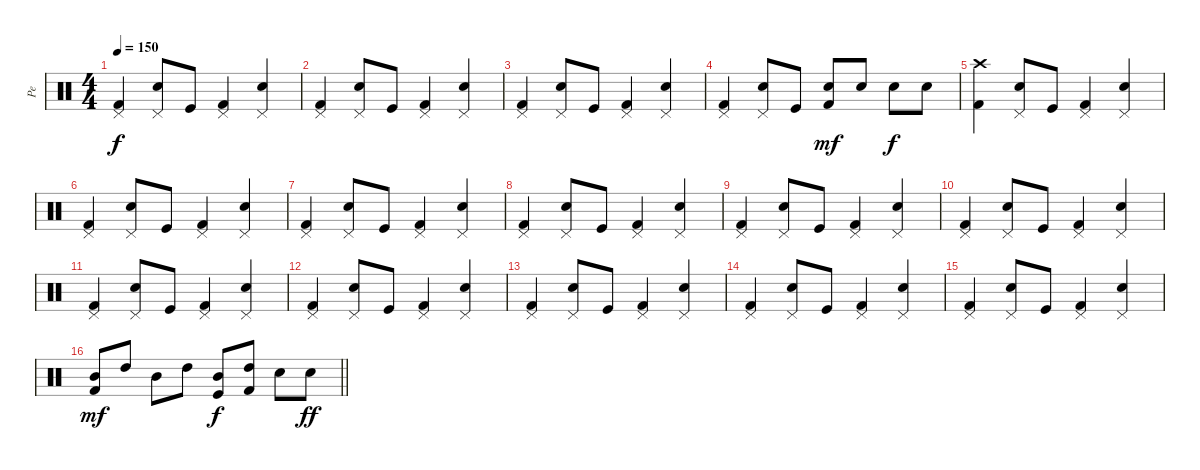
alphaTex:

\track ("Pe" "Pe") {instrument percussion}
\staff {score}
\articulation defaults
\ts (4 4)
\tempo 150
\clef neutral
\ks c
("Kick (hit) 2" "Pedal Hi-Hat (hit)").4{dy f} ("Electric Snare (hit)" "Pedal Hi-Hat (hit)").8 "Kick (hit)".8 ("Kick (hit) 2" "Pedal Hi-Hat (hit)").4 ("Electric Snare (hit)" "Pedal Hi-Hat (hit)").4 |
("Kick (hit) 2" "Pedal Hi-Hat (hit)").4 ("Electric Snare (hit)" "Pedal Hi-Hat (hit)").8 "Kick (hit)".8 ("Kick (hit) 2" "Pedal Hi-Hat (hit)").4 ("Electric Snare (hit)" "Pedal Hi-Hat (hit)").4 |
("Kick (hit) 2" "Pedal Hi-Hat (hit)").4 ("Electric Snare (hit)" "Pedal Hi-Hat (hit)").8 "Kick (hit)".8 ("Kick (hit) 2" "Pedal Hi-Hat (hit)").4 ("Electric Snare (hit)" "Pedal Hi-Hat (hit)").4 |
("Kick (hit) 2" "Pedal Hi-Hat (hit)").4 ("Electric Snare (hit)" "Pedal Hi-Hat (hit)").8 "Kick (hit)".8 ("Kick (hit) 2" "Electric Snare (hit)").8{dy mf} "Electric Snare (hit)".8 "Electric Snare (hit)".8{dy f} "Electric Snare (hit)".8 |
("Kick (hit) 2" "Crash high (hit)").4 ("Electric Snare (hit)" "Pedal Hi-Hat (hit)").8 "Kick (hit)".8 ("Kick (hit) 2" "Pedal Hi-Hat (hit)").4 ("Electric Snare (hit)" "Pedal Hi-Hat (hit)").4 |
("Kick (hit) 2" "Pedal Hi-Hat (hit)").4 ("Electric Snare (hit)" "Pedal Hi-Hat (hit)").8 "Kick (hit)".8 ("Kick (hit) 2" "Pedal Hi-Hat (hit)").4 ("Electric Snare (hit)" "Pedal Hi-Hat (hit)").4 |
("Kick (hit) 2" "Pedal Hi-Hat (hit)").4 ("Electric Snare (hit)" "Pedal Hi-Hat (hit)").8 "Kick (hit)".8 ("Kick (hit) 2" "Pedal Hi-Hat (hit)").4 ("Electric Snare (hit)" "Pedal Hi-Hat (hit)").4 |
("Kick (hit) 2" "Pedal Hi-Hat (hit)").4 ("Electric Snare (hit)" "Pedal Hi-Hat (hit)").8 "Kick (hit)".8 ("Kick (hit) 2" "Pedal Hi-Hat (hit)").4 ("Electric Snare (hit)" "Pedal Hi-Hat (hit)").4 |
("Kick (hit) 2" "Pedal Hi-Hat (hit)").4 ("Electric Snare (hit)" "Pedal Hi-Hat (hit)").8 "Kick (hit)".8 ("Kick (hit) 2" "Pedal Hi-Hat (hit)").4 ("Electric Snare (hit)" "Pedal Hi-Hat (hit)").4 |
("Kick (hit) 2" "Pedal Hi-Hat (hit)").4 ("Electric Snare (hit)" "Pedal Hi-Hat (hit)").8 "Kick (hit)".8 ("Kick (hit) 2" "Pedal Hi-Hat (hit)").4 ("Electric Snare (hit)" "Pedal Hi-Hat (hit)").4 |
("Kick (hit) 2" "Pedal Hi-Hat (hit)").4 ("Electric Snare (hit)" "Pedal Hi-Hat (hit)").8 "Kick (hit)".8 ("Kick (hit) 2" "Pedal Hi-Hat (hit)").4 ("Electric Snare (hit)" "Pedal Hi-Hat (hit)").4 |
("Kick (hit) 2" "Pedal Hi-Hat (hit)").4 ("Electric Snare (hit)" "Pedal Hi-Hat (hit)").8 "Kick (hit)".8 ("Kick (hit) 2" "Pedal Hi-Hat (hit)").4 ("Electric Snare (hit)" "Pedal Hi-Hat (hit)").4 |
("Kick (hit) 2" "Pedal Hi-Hat (hit)").4 ("Electric Snare (hit)" "Pedal Hi-Hat (hit)").8 "Kick (hit)".8 ("Kick (hit) 2" "Pedal Hi-Hat (hit)").4 ("Electric Snare (hit)" "Pedal Hi-Hat (hit)").4 |
("Kick (hit) 2" "Pedal Hi-Hat (hit)").4 ("Electric Snare (hit)" "Pedal Hi-Hat (hit)").8 "Kick (hit)".8 ("Kick (hit) 2" "Pedal Hi-Hat (hit)").4 ("Electric Snare (hit)" "Pedal Hi-Hat (hit)").4 |
("Kick (hit) 2" "Pedal Hi-Hat (hit)").4 ("Electric Snare (hit)" "Pedal Hi-Hat (hit)").8 "Kick (hit)".8 ("Kick (hit) 2" "Pedal Hi-Hat (hit)").4 ("Electric Snare (hit)" "Pedal Hi-Hat (hit)").4 |
\barLineRight lightlight
("Kick (hit) 2" "Mid Tom (hit)").8{dy mf} "High Tom (hit)".8 "Mid Tom (hit)".8 "High Tom (hit)".8 ("Kick (hit)" "Mid Tom (hit)").8{dy f} ("Kick (hit) 2" "High Tom (hit)").8 "Electric Snare (hit)".8 "Electric Snare (hit)".8{dy ff}
